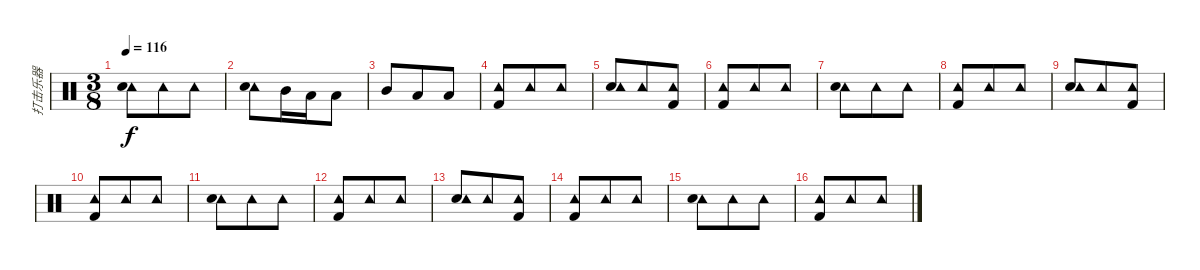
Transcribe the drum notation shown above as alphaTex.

\track ("打击乐器" "打击乐器") {instrument percussion}
\staff {score}
\articulation defaults
\ts (3 8)
\tempo 116
\clef neutral
\ks c
("Tambourine (hit)" "Snare (hit) 2").8{dy f} "Tambourine (hit)".8 "Tambourine (hit)".8 |
("Tambourine (hit)" "Snare (hit) 2").8 "Mid Tom (hit)".16 "Low Tom (hit)".16 "Low Floor Tom (hit)".8 |
"Mid Tom (hit)".8 "Low Tom (hit)".8 "Low Floor Tom (hit)".8 |
("Tambourine (hit)" "Kick (hit) 2").8 "Tambourine (hit)".8 "Tambourine (hit)".8 |
("Snare (hit) 2" "Tambourine (hit)").8 "Tambourine (hit)".8 ("Tambourine (hit)" "Kick (hit) 2").8 |
("Tambourine (hit)" "Kick (hit) 2").8 "Tambourine (hit)".8 "Tambourine (hit)".8 |
("Tambourine (hit)" "Snare (hit) 2").8 "Tambourine (hit)".8 "Tambourine (hit)".8 |
("Tambourine (hit)" "Kick (hit) 2").8 "Tambourine (hit)".8 "Tambourine (hit)".8 |
("Snare (hit) 2" "Tambourine (hit)").8 "Tambourine (hit)".8 ("Tambourine (hit)" "Kick (hit) 2").8 |
("Tambourine (hit)" "Kick (hit) 2").8 "Tambourine (hit)".8 "Tambourine (hit)".8 |
("Tambourine (hit)" "Snare (hit) 2").8 "Tambourine (hit)".8 "Tambourine (hit)".8 |
("Tambourine (hit)" "Kick (hit) 2").8 "Tambourine (hit)".8 "Tambourine (hit)".8 |
("Snare (hit) 2" "Tambourine (hit)").8 "Tambourine (hit)".8 ("Tambourine (hit)" "Kick (hit) 2").8 |
("Tambourine (hit)" "Kick (hit) 2").8 "Tambourine (hit)".8 "Tambourine (hit)".8 |
("Tambourine (hit)" "Snare (hit) 2").8 "Tambourine (hit)".8 "Tambourine (hit)".8 |
("Tambourine (hit)" "Kick (hit) 2").8 "Tambourine (hit)".8 "Tambourine (hit)".8
